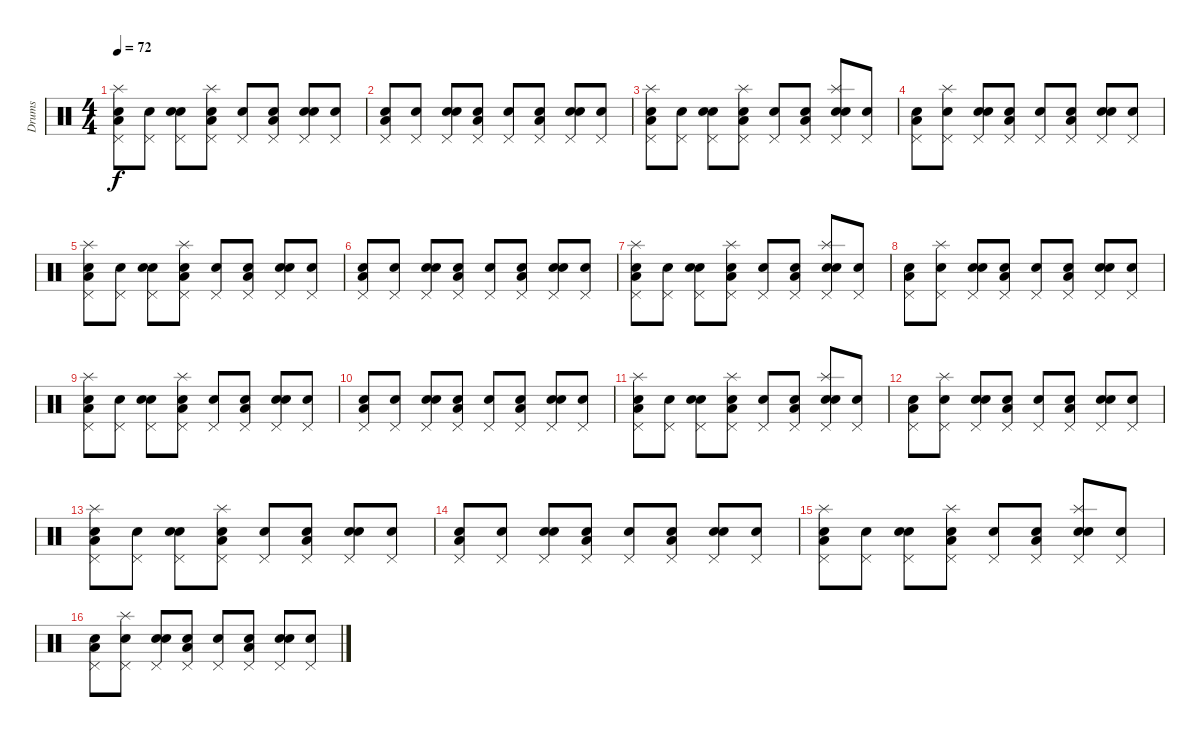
\track ("Drums" "Drums") {instrument percussion}
\staff {score}
\articulation defaults
\ts (4 4)
\tempo 72
\clef neutral
\ks c
("Snare (hit)" "Low Floor Tom (hit)" "Pedal Hi-Hat (hit)" "Splash (hit)").8{dy f} ("Snare (hit)" "Pedal Hi-Hat (hit)").8 ("Snare (hit)" "Electric Snare (hit)" "Pedal Hi-Hat (hit)").8 ("Snare (hit)" "Low Floor Tom (hit)" "Pedal Hi-Hat (hit)" "Splash (hit)").8 ("Snare (hit)" "Pedal Hi-Hat (hit)").8 ("Snare (hit)" "Low Floor Tom (hit)" "Pedal Hi-Hat (hit)").8 ("Snare (hit)" "Electric Snare (hit)" "Pedal Hi-Hat (hit)").8 ("Snare (hit)" "Pedal Hi-Hat (hit)").8 |
("Snare (hit)" "Low Floor Tom (hit)" "Pedal Hi-Hat (hit)").8 ("Snare (hit)" "Pedal Hi-Hat (hit)").8 ("Snare (hit)" "Electric Snare (hit)" "Pedal Hi-Hat (hit)").8 ("Snare (hit)" "Low Floor Tom (hit)" "Pedal Hi-Hat (hit)").8 ("Snare (hit)" "Pedal Hi-Hat (hit)").8 ("Snare (hit)" "Low Floor Tom (hit)" "Pedal Hi-Hat (hit)").8 ("Snare (hit)" "Electric Snare (hit)" "Pedal Hi-Hat (hit)").8 ("Snare (hit)" "Pedal Hi-Hat (hit)").8 |
("Snare (hit)" "Low Floor Tom (hit)" "Pedal Hi-Hat (hit)" "Splash (hit)").8 ("Snare (hit)" "Pedal Hi-Hat (hit)").8 ("Snare (hit)" "Electric Snare (hit)" "Pedal Hi-Hat (hit)").8 ("Snare (hit)" "Low Floor Tom (hit)" "Pedal Hi-Hat (hit)" "Splash (hit)").8 ("Snare (hit)" "Pedal Hi-Hat (hit)").8 ("Snare (hit)" "Low Floor Tom (hit)" "Pedal Hi-Hat (hit)").8 ("Snare (hit)" "Electric Snare (hit)" "Pedal Hi-Hat (hit)" "Splash (hit)").8 ("Snare (hit)" "Pedal Hi-Hat (hit)").8 |
("Snare (hit)" "Low Floor Tom (hit)" "Pedal Hi-Hat (hit)").8 ("Snare (hit)" "Pedal Hi-Hat (hit)" "Splash (hit)").8 ("Snare (hit)" "Electric Snare (hit)" "Pedal Hi-Hat (hit)").8 ("Snare (hit)" "Low Floor Tom (hit)" "Pedal Hi-Hat (hit)").8 ("Snare (hit)" "Pedal Hi-Hat (hit)").8 ("Snare (hit)" "Low Floor Tom (hit)" "Pedal Hi-Hat (hit)").8 ("Snare (hit)" "Electric Snare (hit)" "Pedal Hi-Hat (hit)").8 ("Snare (hit)" "Pedal Hi-Hat (hit)").8 |
("Snare (hit)" "Low Floor Tom (hit)" "Pedal Hi-Hat (hit)" "Splash (hit)").8 ("Snare (hit)" "Pedal Hi-Hat (hit)").8 ("Snare (hit)" "Electric Snare (hit)" "Pedal Hi-Hat (hit)").8 ("Snare (hit)" "Low Floor Tom (hit)" "Pedal Hi-Hat (hit)" "Splash (hit)").8 ("Snare (hit)" "Pedal Hi-Hat (hit)").8 ("Snare (hit)" "Low Floor Tom (hit)" "Pedal Hi-Hat (hit)").8 ("Snare (hit)" "Electric Snare (hit)" "Pedal Hi-Hat (hit)").8 ("Snare (hit)" "Pedal Hi-Hat (hit)").8 |
("Snare (hit)" "Low Floor Tom (hit)" "Pedal Hi-Hat (hit)").8 ("Snare (hit)" "Pedal Hi-Hat (hit)").8 ("Snare (hit)" "Electric Snare (hit)" "Pedal Hi-Hat (hit)").8 ("Snare (hit)" "Low Floor Tom (hit)" "Pedal Hi-Hat (hit)").8 ("Snare (hit)" "Pedal Hi-Hat (hit)").8 ("Snare (hit)" "Low Floor Tom (hit)" "Pedal Hi-Hat (hit)").8 ("Snare (hit)" "Electric Snare (hit)" "Pedal Hi-Hat (hit)").8 ("Snare (hit)" "Pedal Hi-Hat (hit)").8 |
("Snare (hit)" "Low Floor Tom (hit)" "Pedal Hi-Hat (hit)" "Splash (hit)").8 ("Snare (hit)" "Pedal Hi-Hat (hit)").8 ("Snare (hit)" "Electric Snare (hit)" "Pedal Hi-Hat (hit)").8 ("Snare (hit)" "Low Floor Tom (hit)" "Pedal Hi-Hat (hit)" "Splash (hit)").8 ("Snare (hit)" "Pedal Hi-Hat (hit)").8 ("Snare (hit)" "Low Floor Tom (hit)" "Pedal Hi-Hat (hit)").8 ("Snare (hit)" "Electric Snare (hit)" "Pedal Hi-Hat (hit)" "Splash (hit)").8 ("Snare (hit)" "Pedal Hi-Hat (hit)").8 |
("Snare (hit)" "Low Floor Tom (hit)" "Pedal Hi-Hat (hit)").8 ("Snare (hit)" "Pedal Hi-Hat (hit)" "Splash (hit)").8 ("Snare (hit)" "Electric Snare (hit)" "Pedal Hi-Hat (hit)").8 ("Snare (hit)" "Low Floor Tom (hit)" "Pedal Hi-Hat (hit)").8 ("Snare (hit)" "Pedal Hi-Hat (hit)").8 ("Snare (hit)" "Low Floor Tom (hit)" "Pedal Hi-Hat (hit)").8 ("Snare (hit)" "Electric Snare (hit)" "Pedal Hi-Hat (hit)").8 ("Snare (hit)" "Pedal Hi-Hat (hit)").8 |
("Snare (hit)" "Low Floor Tom (hit)" "Pedal Hi-Hat (hit)" "Splash (hit)").8 ("Snare (hit)" "Pedal Hi-Hat (hit)").8 ("Snare (hit)" "Electric Snare (hit)" "Pedal Hi-Hat (hit)").8 ("Snare (hit)" "Low Floor Tom (hit)" "Pedal Hi-Hat (hit)" "Splash (hit)").8 ("Snare (hit)" "Pedal Hi-Hat (hit)").8 ("Snare (hit)" "Low Floor Tom (hit)" "Pedal Hi-Hat (hit)").8 ("Snare (hit)" "Electric Snare (hit)" "Pedal Hi-Hat (hit)").8 ("Snare (hit)" "Pedal Hi-Hat (hit)").8 |
("Snare (hit)" "Low Floor Tom (hit)" "Pedal Hi-Hat (hit)").8 ("Snare (hit)" "Pedal Hi-Hat (hit)").8 ("Snare (hit)" "Electric Snare (hit)" "Pedal Hi-Hat (hit)").8 ("Snare (hit)" "Low Floor Tom (hit)" "Pedal Hi-Hat (hit)").8 ("Snare (hit)" "Pedal Hi-Hat (hit)").8 ("Snare (hit)" "Low Floor Tom (hit)" "Pedal Hi-Hat (hit)").8 ("Snare (hit)" "Electric Snare (hit)" "Pedal Hi-Hat (hit)").8 ("Snare (hit)" "Pedal Hi-Hat (hit)").8 |
("Snare (hit)" "Low Floor Tom (hit)" "Pedal Hi-Hat (hit)" "Splash (hit)").8 ("Snare (hit)" "Pedal Hi-Hat (hit)").8 ("Snare (hit)" "Electric Snare (hit)" "Pedal Hi-Hat (hit)").8 ("Snare (hit)" "Low Floor Tom (hit)" "Pedal Hi-Hat (hit)" "Splash (hit)").8 ("Snare (hit)" "Pedal Hi-Hat (hit)").8 ("Snare (hit)" "Low Floor Tom (hit)" "Pedal Hi-Hat (hit)").8 ("Snare (hit)" "Electric Snare (hit)" "Pedal Hi-Hat (hit)" "Splash (hit)").8 ("Snare (hit)" "Pedal Hi-Hat (hit)").8 |
("Snare (hit)" "Low Floor Tom (hit)" "Pedal Hi-Hat (hit)").8 ("Snare (hit)" "Pedal Hi-Hat (hit)" "Splash (hit)").8 ("Snare (hit)" "Electric Snare (hit)" "Pedal Hi-Hat (hit)").8 ("Snare (hit)" "Low Floor Tom (hit)" "Pedal Hi-Hat (hit)").8 ("Snare (hit)" "Pedal Hi-Hat (hit)").8 ("Snare (hit)" "Low Floor Tom (hit)" "Pedal Hi-Hat (hit)").8 ("Snare (hit)" "Electric Snare (hit)" "Pedal Hi-Hat (hit)").8 ("Snare (hit)" "Pedal Hi-Hat (hit)").8 |
("Snare (hit)" "Low Floor Tom (hit)" "Pedal Hi-Hat (hit)" "Splash (hit)").8 ("Snare (hit)" "Pedal Hi-Hat (hit)").8 ("Snare (hit)" "Electric Snare (hit)" "Pedal Hi-Hat (hit)").8 ("Snare (hit)" "Low Floor Tom (hit)" "Pedal Hi-Hat (hit)" "Splash (hit)").8 ("Snare (hit)" "Pedal Hi-Hat (hit)").8 ("Snare (hit)" "Low Floor Tom (hit)" "Pedal Hi-Hat (hit)").8 ("Snare (hit)" "Electric Snare (hit)" "Pedal Hi-Hat (hit)").8 ("Snare (hit)" "Pedal Hi-Hat (hit)").8 |
("Snare (hit)" "Low Floor Tom (hit)" "Pedal Hi-Hat (hit)").8 ("Snare (hit)" "Pedal Hi-Hat (hit)").8 ("Snare (hit)" "Electric Snare (hit)" "Pedal Hi-Hat (hit)").8 ("Snare (hit)" "Low Floor Tom (hit)" "Pedal Hi-Hat (hit)").8 ("Snare (hit)" "Pedal Hi-Hat (hit)").8 ("Snare (hit)" "Low Floor Tom (hit)" "Pedal Hi-Hat (hit)").8 ("Snare (hit)" "Electric Snare (hit)" "Pedal Hi-Hat (hit)").8 ("Snare (hit)" "Pedal Hi-Hat (hit)").8 |
("Snare (hit)" "Low Floor Tom (hit)" "Pedal Hi-Hat (hit)" "Splash (hit)").8 ("Snare (hit)" "Pedal Hi-Hat (hit)").8 ("Snare (hit)" "Electric Snare (hit)" "Pedal Hi-Hat (hit)").8 ("Snare (hit)" "Low Floor Tom (hit)" "Pedal Hi-Hat (hit)" "Splash (hit)").8 ("Snare (hit)" "Pedal Hi-Hat (hit)").8 ("Snare (hit)" "Low Floor Tom (hit)" "Pedal Hi-Hat (hit)").8 ("Snare (hit)" "Electric Snare (hit)" "Pedal Hi-Hat (hit)" "Splash (hit)").8 ("Snare (hit)" "Pedal Hi-Hat (hit)").8 |
("Snare (hit)" "Low Floor Tom (hit)" "Pedal Hi-Hat (hit)").8 ("Snare (hit)" "Pedal Hi-Hat (hit)" "Splash (hit)").8 ("Snare (hit)" "Electric Snare (hit)" "Pedal Hi-Hat (hit)").8 ("Snare (hit)" "Low Floor Tom (hit)" "Pedal Hi-Hat (hit)").8 ("Snare (hit)" "Pedal Hi-Hat (hit)").8 ("Snare (hit)" "Low Floor Tom (hit)" "Pedal Hi-Hat (hit)").8 ("Snare (hit)" "Electric Snare (hit)" "Pedal Hi-Hat (hit)").8 ("Snare (hit)" "Pedal Hi-Hat (hit)").8
